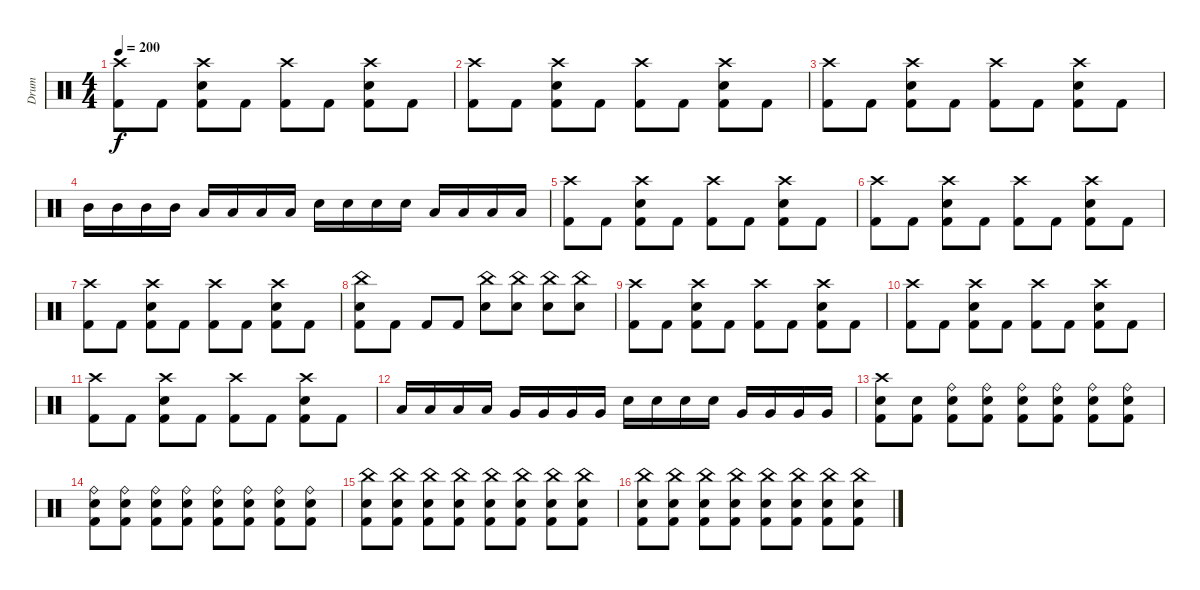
\track ("Drum" "Drum") {instrument percussion}
\staff {score}
\articulation defaults
\ts (4 4)
\tempo 200
\clef neutral
\ks c
("Crash high (hit)" "Kick (hit) 2").8{dy f} "Kick (hit) 2".8 ("Crash high (hit)" "Snare (hit) 2" "Kick (hit) 2").8 "Kick (hit) 2".8 ("Crash high (hit)" "Kick (hit) 2").8 "Kick (hit) 2".8 ("Crash high (hit)" "Snare (hit) 2" "Kick (hit) 2").8 "Kick (hit) 2".8 |
("Crash high (hit)" "Kick (hit) 2").8 "Kick (hit) 2".8 ("Crash high (hit)" "Snare (hit) 2" "Kick (hit) 2").8 "Kick (hit) 2".8 ("Crash high (hit)" "Kick (hit) 2").8 "Kick (hit) 2".8 ("Crash high (hit)" "Snare (hit) 2" "Kick (hit) 2").8 "Kick (hit) 2".8 |
("Crash high (hit)" "Kick (hit) 2").8 "Kick (hit) 2".8 ("Crash high (hit)" "Snare (hit) 2" "Kick (hit) 2").8 "Kick (hit) 2".8 ("Crash high (hit)" "Kick (hit) 2").8 "Kick (hit) 2".8 ("Crash high (hit)" "Snare (hit) 2" "Kick (hit) 2").8 "Kick (hit) 2".8 |
"Mid Tom (hit)".16 "Mid Tom (hit)".16 "Mid Tom (hit)".16 "Mid Tom (hit)".16 "Low Tom (hit)".16 "Low Tom (hit)".16 "Low Tom (hit)".16 "Low Tom (hit)".16 "Snare (hit) 2".16 "Snare (hit) 2".16 "Snare (hit) 2".16 "Snare (hit) 2".16 "Low Tom (hit)".16 "Low Tom (hit)".16 "Low Tom (hit)".16 "Low Tom (hit)".16 |
("Crash high (hit)" "Kick (hit) 2").8 "Kick (hit) 2".8 ("Crash high (hit)" "Snare (hit) 2" "Kick (hit) 2").8 "Kick (hit) 2".8 ("Crash high (hit)" "Kick (hit) 2").8 "Kick (hit) 2".8 ("Crash high (hit)" "Snare (hit) 2" "Kick (hit) 2").8 "Kick (hit) 2".8 |
("Crash high (hit)" "Kick (hit) 2").8 "Kick (hit) 2".8 ("Crash high (hit)" "Snare (hit) 2" "Kick (hit) 2").8 "Kick (hit) 2".8 ("Crash high (hit)" "Kick (hit) 2").8 "Kick (hit) 2".8 ("Crash high (hit)" "Snare (hit) 2" "Kick (hit) 2").8 "Kick (hit) 2".8 |
("Crash high (hit)" "Kick (hit) 2").8 "Kick (hit) 2".8 ("Crash high (hit)" "Snare (hit) 2" "Kick (hit) 2").8 "Kick (hit) 2".8 ("Crash high (hit)" "Kick (hit) 2").8 "Kick (hit) 2".8 ("Crash high (hit)" "Snare (hit) 2" "Kick (hit) 2").8 "Kick (hit) 2".8 |
("China (hit)" "Snare (hit) 2" "Kick (hit) 2").8 "Kick (hit) 2".8 "Kick (hit) 2".8 "Kick (hit) 2".8 ("China (hit)" "Snare (hit) 2").8 ("China (hit)" "Snare (hit) 2").8 ("China (hit)" "Snare (hit) 2").8 ("China (hit)" "Snare (hit) 2").8 |
("Crash high (hit)" "Kick (hit) 2").8 "Kick (hit) 2".8 ("Crash high (hit)" "Snare (hit) 2" "Kick (hit) 2").8 "Kick (hit) 2".8 ("Crash high (hit)" "Kick (hit) 2").8 "Kick (hit) 2".8 ("Crash high (hit)" "Snare (hit) 2" "Kick (hit) 2").8 "Kick (hit) 2".8 |
("Crash high (hit)" "Kick (hit) 2").8 "Kick (hit) 2".8 ("Crash high (hit)" "Snare (hit) 2" "Kick (hit) 2").8 "Kick (hit) 2".8 ("Crash high (hit)" "Kick (hit) 2").8 "Kick (hit) 2".8 ("Crash high (hit)" "Snare (hit) 2" "Kick (hit) 2").8 "Kick (hit) 2".8 |
("Crash high (hit)" "Kick (hit) 2").8 "Kick (hit) 2".8 ("Crash high (hit)" "Snare (hit) 2" "Kick (hit) 2").8 "Kick (hit) 2".8 ("Crash high (hit)" "Kick (hit) 2").8 "Kick (hit) 2".8 ("Crash high (hit)" "Snare (hit) 2" "Kick (hit) 2").8 "Kick (hit) 2".8 |
"Low Tom (hit)".16 "Low Tom (hit)".16 "Low Tom (hit)".16 "Low Tom (hit)".16 "Very Low Tom (hit)".16 "Very Low Tom (hit)".16 "Very Low Tom (hit)".16 "Very Low Tom (hit)".16 "Snare (hit) 2".16 "Snare (hit) 2".16 "Snare (hit) 2".16 "Snare (hit) 2".16 "Very Low Tom (hit)".16 "Very Low Tom (hit)".16 "Very Low Tom (hit)".16 "Very Low Tom (hit)".16 |
("Crash high (hit)" "Snare (hit) 2" "Kick (hit) 2").8 ("Snare (hit) 2" "Kick (hit) 2").8 ("Ride (bell)" "Snare (hit) 2" "Kick (hit) 2").8 ("Ride (bell)" "Snare (hit) 2" "Kick (hit) 2").8 ("Ride (bell)" "Snare (hit) 2" "Kick (hit) 2").8 ("Ride (bell)" "Snare (hit) 2" "Kick (hit) 2").8 ("Ride (bell)" "Snare (hit) 2" "Kick (hit) 2").8 ("Ride (bell)" "Snare (hit) 2" "Kick (hit) 2").8 |
("Ride (bell)" "Snare (hit) 2" "Kick (hit) 2").8 ("Ride (bell)" "Snare (hit) 2" "Kick (hit) 2").8 ("Ride (bell)" "Snare (hit) 2" "Kick (hit) 2").8 ("Ride (bell)" "Snare (hit) 2" "Kick (hit) 2").8 ("Ride (bell)" "Snare (hit) 2" "Kick (hit) 2").8 ("Ride (bell)" "Snare (hit) 2" "Kick (hit) 2").8 ("Ride (bell)" "Snare (hit) 2" "Kick (hit) 2").8 ("Ride (bell)" "Snare (hit) 2" "Kick (hit) 2").8 |
("China (hit)" "Snare (hit) 2" "Kick (hit) 2").8 ("China (hit)" "Snare (hit) 2" "Kick (hit) 2").8 ("China (hit)" "Snare (hit) 2" "Kick (hit) 2").8 ("China (hit)" "Snare (hit) 2" "Kick (hit) 2").8 ("China (hit)" "Snare (hit) 2" "Kick (hit) 2").8 ("China (hit)" "Snare (hit) 2" "Kick (hit) 2").8 ("China (hit)" "Snare (hit) 2" "Kick (hit) 2").8 ("China (hit)" "Snare (hit) 2" "Kick (hit) 2").8 |
("China (hit)" "Snare (hit) 2" "Kick (hit) 2").8 ("China (hit)" "Snare (hit) 2" "Kick (hit) 2").8 ("China (hit)" "Snare (hit) 2" "Kick (hit) 2").8 ("China (hit)" "Snare (hit) 2" "Kick (hit) 2").8 ("China (hit)" "Snare (hit) 2" "Kick (hit) 2").8 ("China (hit)" "Snare (hit) 2" "Kick (hit) 2").8 ("China (hit)" "Snare (hit) 2" "Kick (hit) 2").8 ("China (hit)" "Snare (hit) 2" "Kick (hit) 2").8
